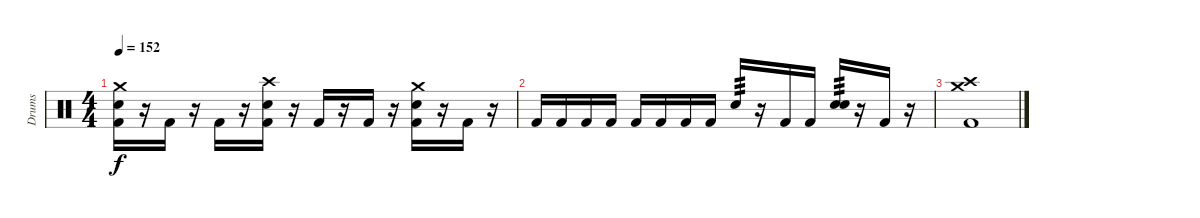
\track ("Drums" "Drums") {instrument percussion}
\staff {score}
\articulation defaults
\ts (4 4)
\tempo 152
\clef neutral
\ks c
("Crash medium (hit)" "Snare (hit) 2" "Kick (hit) 2").16{dy f} r.16 "Kick (hit) 2".16 r.16 "Kick (hit) 2".16 r.16 ("Crash high (hit)" "Snare (hit) 2" "Kick (hit) 2").16 r.16 "Kick (hit) 2".16 r.16 "Kick (hit) 2".16 r.16 ("Crash medium (hit)" "Snare (hit) 2" "Kick (hit) 2").16 r.16 "Kick (hit) 2".16 r.16 |
"Kick (hit) 2".16 "Kick (hit) 2".16 "Kick (hit) 2".16 "Kick (hit) 2".16 "Kick (hit) 2".16 "Kick (hit) 2".16 "Kick (hit) 2".16 "Kick (hit) 2".16 "Snare (hit) 2".16{tp 3} r.16 "Kick (hit) 2".16 "Kick (hit) 2".16 ("Electric Snare (hit)" "Snare (hit) 2").16{tp 3} r.16 "Kick (hit) 2".16 r.16 |
("Crash high (hit)" "Crash medium (hit)" "Kick (hit) 2").1
